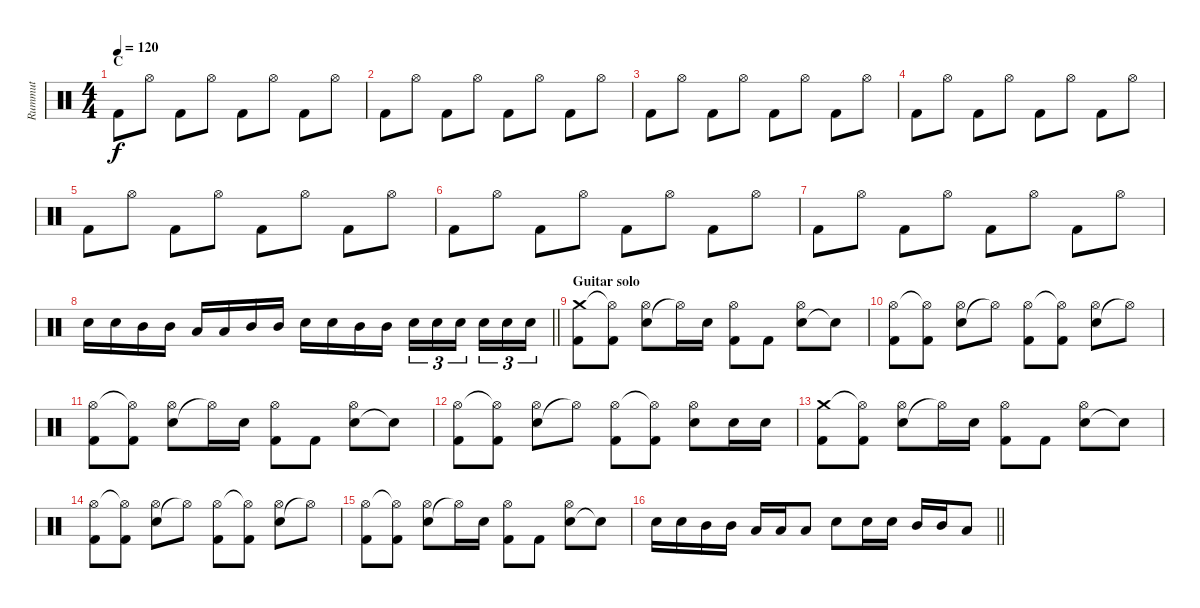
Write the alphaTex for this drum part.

\track ("Rummut" "Rummut") {instrument percussion}
\staff {score}
\articulation defaults
\ts (4 4)
\section ("" "C")
\tempo 120
\clef neutral
\ks c "Kick (hit) 2".8{dy f} "Hi-Hat (open)".8 "Kick (hit) 2".8 "Hi-Hat (open)".8 "Kick (hit) 2".8 "Hi-Hat (open)".8 "Kick (hit) 2".8 "Hi-Hat (open)".8
|
"Kick (hit) 2".8 "Hi-Hat (open)".8 "Kick (hit) 2".8 "Hi-Hat (open)".8 "Kick (hit) 2".8 "Hi-Hat (open)".8 "Kick (hit) 2".8 "Hi-Hat (open)".8 |
"Kick (hit) 2".8 "Hi-Hat (open)".8 "Kick (hit) 2".8 "Hi-Hat (open)".8 "Kick (hit) 2".8 "Hi-Hat (open)".8 "Kick (hit) 2".8 "Hi-Hat (open)".8 |
"Kick (hit) 2".8 "Hi-Hat (open)".8 "Kick (hit) 2".8 "Hi-Hat (open)".8 "Kick (hit) 2".8 "Hi-Hat (open)".8 "Kick (hit) 2".8 "Hi-Hat (open)".8 |
"Kick (hit) 2".8 "Hi-Hat (open)".8 "Kick (hit) 2".8 "Hi-Hat (open)".8 "Kick (hit) 2".8 "Hi-Hat (open)".8 "Kick (hit) 2".8 "Hi-Hat (open)".8 |
"Kick (hit) 2".8 "Hi-Hat (open)".8 "Kick (hit) 2".8 "Hi-Hat (open)".8 "Kick (hit) 2".8 "Hi-Hat (open)".8 "Kick (hit) 2".8 "Hi-Hat (open)".8 |
"Kick (hit) 2".8 "Hi-Hat (open)".8 "Kick (hit) 2".8 "Hi-Hat (open)".8 "Kick (hit) 2".8 "Hi-Hat (open)".8 "Kick (hit) 2".8 "Hi-Hat (open)".8 |
\barLineRight lightlight "Electric Snare (hit)".16 "Electric Snare (hit)".16 "Mid Tom (hit)".16 "Mid Tom (hit)".16 "Low Tom (hit)".16 "Low Tom (hit)".16 "Mid Tom (hit)".16 "Mid Tom (hit)".16 "Electric Snare (hit)".16 "Electric Snare (hit)".16 "Mid Tom (hit)".16 "Mid Tom (hit)".16 "Electric Snare (hit)".16{tu (3 2)} "Electric Snare (hit)".16{tu (3 2)} "Electric Snare (hit)".16{tu (3 2)} "Electric Snare (hit)".16{tu (3 2)} "Electric Snare (hit)".16{tu (3 2)} "Electric Snare (hit)".16{tu (3 2)}
|
\section ("" "Guitar solo")
("Kick (hit) 2" "Crash medium (hit)").8 ("Kick (hit) 2" "Hi-Hat (open)"{t}).8 ("Electric Snare (hit)" "Hi-Hat (open)").8 "Hi-Hat (open)"{t}.16 "Electric Snare (hit)".16 ("Kick (hit) 2" "Hi-Hat (open)").8 "Kick (hit) 2".8 ("Electric Snare (hit)" "Hi-Hat (open)").8 "Snare (hit)"{t}.8 |
("Kick (hit) 2" "Hi-Hat (open)").8 ("Kick (hit) 2" "Hi-Hat (open)"{t}).8 ("Electric Snare (hit)" "Hi-Hat (open)").8 "Hi-Hat (open)"{t}.8 ("Kick (hit) 2" "Hi-Hat (open)").8 ("Kick (hit) 2" "Hi-Hat (open)"{t}).8 ("Electric Snare (hit)" "Hi-Hat (open)").8 "Hi-Hat (open)"{t}.8 |
("Kick (hit) 2" "Hi-Hat (open)").8 ("Kick (hit) 2" "Hi-Hat (open)"{t}).8 ("Electric Snare (hit)" "Hi-Hat (open)").8 "Hi-Hat (open)"{t}.16 "Electric Snare (hit)".16 ("Kick (hit) 2" "Hi-Hat (open)").8 "Kick (hit) 2".8 ("Electric Snare (hit)" "Hi-Hat (open)").8 "Snare (hit)"{t}.8 |
("Kick (hit) 2" "Hi-Hat (open)").8 ("Kick (hit) 2" "Hi-Hat (open)"{t}).8 ("Electric Snare (hit)" "Hi-Hat (open)").8 "Hi-Hat (open)"{t}.8 ("Kick (hit) 2" "Hi-Hat (open)").8 ("Kick (hit) 2" "Hi-Hat (open)"{t}).8 ("Electric Snare (hit)" "Hi-Hat (open)").8 "Electric Snare (hit)".16 "Electric Snare (hit)".16 |
("Kick (hit) 2" "Crash medium (hit)").8 ("Kick (hit) 2" "Hi-Hat (open)"{t}).8 ("Electric Snare (hit)" "Hi-Hat (open)").8 "Hi-Hat (open)"{t}.16 "Electric Snare (hit)".16 ("Kick (hit) 2" "Hi-Hat (open)").8 "Kick (hit) 2".8 ("Electric Snare (hit)" "Hi-Hat (open)").8 "Snare (hit)"{t}.8 |
("Kick (hit) 2" "Hi-Hat (open)").8 ("Kick (hit) 2" "Hi-Hat (open)"{t}).8 ("Electric Snare (hit)" "Hi-Hat (open)").8 "Hi-Hat (open)"{t}.8 ("Kick (hit) 2" "Hi-Hat (open)").8 ("Kick (hit) 2" "Hi-Hat (open)"{t}).8 ("Electric Snare (hit)" "Hi-Hat (open)").8 "Hi-Hat (open)"{t}.8 |
("Kick (hit) 2" "Hi-Hat (open)").8 ("Kick (hit) 2" "Hi-Hat (open)"{t}).8 ("Electric Snare (hit)" "Hi-Hat (open)").8 "Hi-Hat (open)"{t}.16 "Electric Snare (hit)".16 ("Kick (hit) 2" "Hi-Hat (open)").8 "Kick (hit) 2".8 ("Electric Snare (hit)" "Hi-Hat (open)").8 "Snare (hit)"{t}.8 |
\barLineRight lightlight "Electric Snare (hit)".16 "Electric Snare (hit)".16 "Mid Tom (hit)".16 "Mid Tom (hit)".16 "Low Tom (hit)".16 "Low Tom (hit)".16 "Low Tom (hit)".8 "Electric Snare (hit)".8 "Electric Snare (hit)".16 "Electric Snare (hit)".16 "Mid Tom (hit)".16 "Mid Tom (hit)".16 "Low Tom (hit)".8
